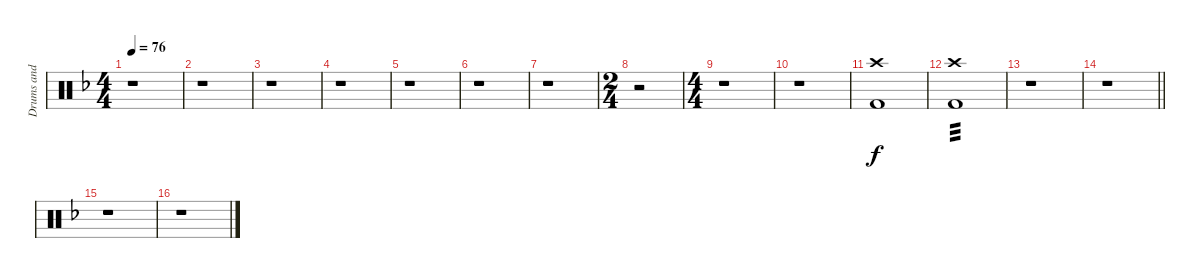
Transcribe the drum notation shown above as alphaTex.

\track ("Drums and percussion" "Drums and ") {instrument percussion}
\staff {score}
\articulation defaults
\ts (4 4)
\tempo 76
\clef neutral
\ks f
r.1{dy f} |
r.1 |
r.1 |
r.1 |
r.1 |
r.1 |
r.1 |
\ts (2 4)
r.2 |
\ts (4 4)
r.1 |
r.1 |
("Crash high (hit)" "Kick (hit) 2").1 |
("Crash high (hit)" "Kick (hit) 2").1{tp 3} |
r.1 |
\barLineRight lightlight
r.1 |
r.1 |
r.1
